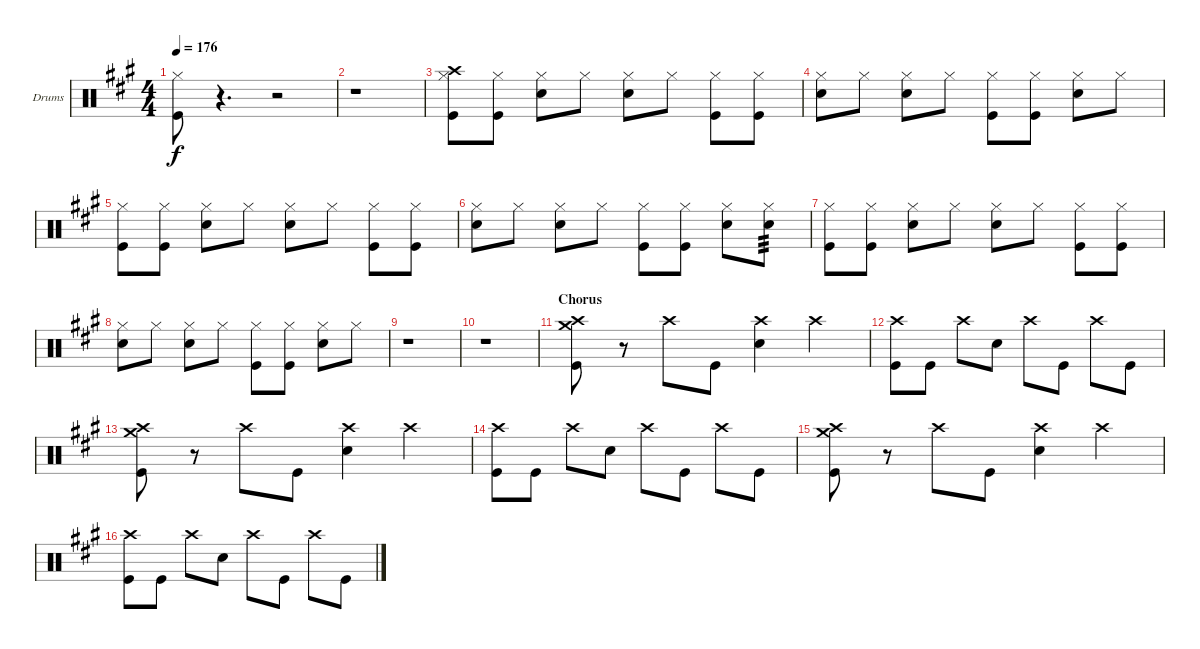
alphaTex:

\defaultSystemsLayout 4
\bracketExtendMode groupsimilarinstruments
\firstSystemTrackNameOrientation horizontal
\otherSystemsTrackNameOrientation horizontal
\track ("Drumkit" "Drums") {instrument percussion}
\staff {score}
\articulation defaults
\ts (4 4)
\tempo 176
\clef neutral
\scale
0.333333
\ks a
("Hi-Hat (closed)" "Kick (hit)").8{dy f} r.4{d} r.2 |
\scale
0.333333 r.1 |
\scale
0.333333 ("Hi-Hat (closed)" "Crash high (hit)" "Kick (hit)").8 ("Hi-Hat (closed)" "Kick (hit)").8 ("Hi-Hat (closed)" "Snare (hit) 2").8 "Hi-Hat (closed)".8 ("Hi-Hat (closed)" "Snare (hit) 2").8 "Hi-Hat (closed)".8 ("Hi-Hat (closed)" "Kick (hit)").8 ("Hi-Hat (closed)" "Kick (hit)").8 |
\scale
0.333333 ("Hi-Hat (closed)" "Snare (hit) 2").8 "Hi-Hat (closed)".8 ("Hi-Hat (closed)" "Snare (hit) 2").8 "Hi-Hat (closed)".8 ("Hi-Hat (closed)" "Kick (hit)").8 ("Hi-Hat (closed)" "Kick (hit)").8 ("Hi-Hat (closed)" "Snare (hit) 2").8 "Hi-Hat (closed)".8 |
\scale
0.333333 ("Hi-Hat (closed)" "Kick (hit)").8 ("Hi-Hat (closed)" "Kick (hit)").8 ("Hi-Hat (closed)" "Snare (hit) 2").8 "Hi-Hat (closed)".8 ("Hi-Hat (closed)" "Snare (hit) 2").8 "Hi-Hat (closed)".8 ("Hi-Hat (closed)" "Kick (hit)").8 ("Hi-Hat (closed)" "Kick (hit)").8 |
\scale
0.333333 ("Hi-Hat (closed)" "Snare (hit) 2").8 "Hi-Hat (closed)".8 ("Hi-Hat (closed)" "Snare (hit) 2").8 "Hi-Hat (closed)".8 ("Hi-Hat (closed)" "Kick (hit)").8 ("Hi-Hat (closed)" "Kick (hit)").8 ("Hi-Hat (closed)" "Snare (hit) 2").8 ("Hi-Hat (closed)" "Snare (hit) 2").8{tp 3} |
\scale
0.333333 ("Hi-Hat (closed)" "Kick (hit)").8 ("Hi-Hat (closed)" "Kick (hit)").8 ("Hi-Hat (closed)" "Snare (hit) 2").8 "Hi-Hat (closed)".8 ("Hi-Hat (closed)" "Snare (hit) 2").8 "Hi-Hat (closed)".8 ("Hi-Hat (closed)" "Kick (hit)").8 ("Hi-Hat (closed)" "Kick (hit)").8 |
\scale
0.333333 ("Hi-Hat (closed)" "Snare (hit) 2").8 "Hi-Hat (closed)".8 ("Hi-Hat (closed)" "Snare (hit) 2").8 "Hi-Hat (closed)".8 ("Hi-Hat (closed)" "Kick (hit)").8 ("Hi-Hat (closed)" "Kick (hit)").8 ("Hi-Hat (closed)" "Snare (hit) 2").8 "Hi-Hat (closed)".8 |
\scale
0.333333 r.1 |
\scale
0.333333 r.1 |
\section ("" "Chorus")
\scale
0.333333 ("Crash high (hit)" "Crash medium (hit)" "Kick (hit)").8 r.8 "Crash high (hit)".8 "Kick (hit)".8 ("Crash high (hit)" "Snare (hit) 2").4 "Crash high (hit)".4 |
\scale
0.333333 ("Crash high (hit)" "Kick (hit)").8 "Kick (hit)".8 "Crash high (hit)".8 "Snare (hit) 2".8 "Crash high (hit)".8 "Kick (hit)".8 "Crash high (hit)".8 "Kick (hit)".8 |
\scale
0.333333 ("Crash high (hit)" "Crash medium (hit)" "Kick (hit)").8 r.8 "Crash high (hit)".8 "Kick (hit)".8 ("Crash high (hit)" "Snare (hit) 2").4 "Crash high (hit)".4 |
\scale
0.333333 ("Crash high (hit)" "Kick (hit)").8 "Kick (hit)".8 "Crash high (hit)".8 "Snare (hit) 2".8 "Crash high (hit)".8 "Kick (hit)".8 "Crash high (hit)".8 "Kick (hit)".8 |
\scale
0.333333 ("Crash high (hit)" "Crash medium (hit)" "Kick (hit)").8 r.8 "Crash high (hit)".8 "Kick (hit)".8 ("Crash high (hit)" "Snare (hit) 2").4 "Crash high (hit)".4 |
\scale
0.333333 ("Crash high (hit)" "Kick (hit)").8 "Kick (hit)".8 "Crash high (hit)".8 "Snare (hit) 2".8 "Crash high (hit)".8 "Kick (hit)".8 "Crash high (hit)".8 "Kick (hit)".8
